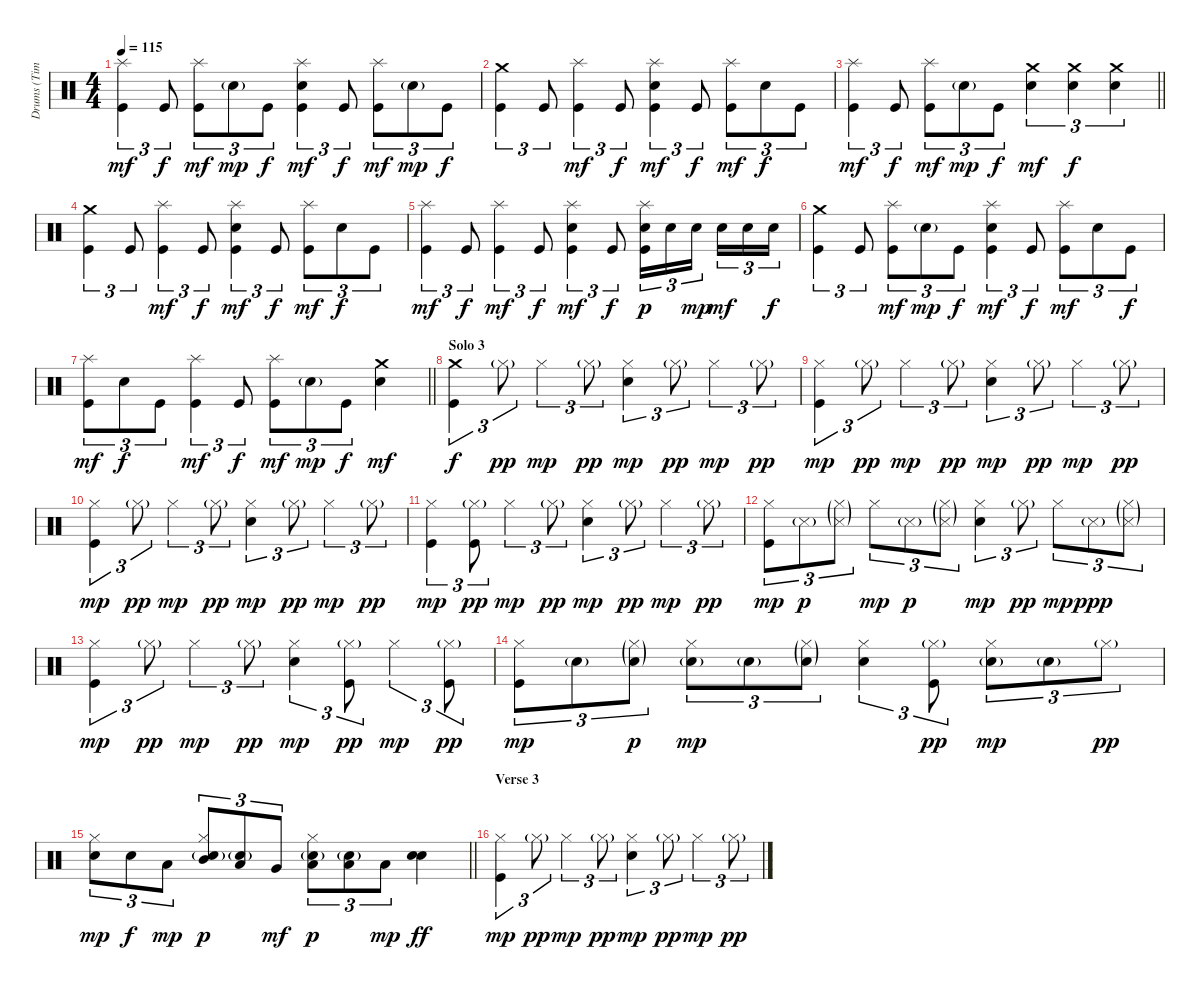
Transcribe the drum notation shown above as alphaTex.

\track ("Drums (Tim Alexander)" "Drums (Tim") {instrument percussion}
\staff {score}
\articulation defaults
\ts (4 4)
\tempo 115
\clef neutral
\ks c
("Splash (hit)" "Kick (hit)").4{tu (3 2) dy mf} "Kick (hit)".8{tu (3 2) dy f} ("Splash (hit)" "Kick (hit)").8{tu (3 2) dy mf} "Electric Snare (hit)"{g}.8{tu (3 2) dy mp} "Kick (hit)".8{tu (3 2) dy f} ("Splash (hit)" "Electric Snare (hit)" "Kick (hit)").4{tu (3 2) dy mf} "Kick (hit)".8{tu (3 2) dy f} ("Splash (hit)" "Kick (hit)").8{tu (3 2) dy mf} "Electric Snare (hit)"{g}.8{tu (3 2) dy mp} "Kick (hit)".8{tu (3 2) dy f} |
("Crash medium (hit)" "Kick (hit)").4{tu (3 2)} "Kick (hit)".8{tu (3 2)} ("Splash (hit)" "Kick (hit)").4{tu (3 2) dy mf} "Kick (hit)".8{tu (3 2) dy f} ("Splash (hit)" "Electric Snare (hit)" "Kick (hit)").4{tu (3 2) dy mf} "Kick (hit)".8{tu (3 2) dy f} ("Splash (hit)" "Kick (hit)").8{tu (3 2) dy mf} "Electric Snare (hit)".8{tu (3 2) dy f} "Kick (hit)".8{tu (3 2)} |
\barLineRight lightlight
("Splash (hit)" "Kick (hit)").4{tu (3 2) dy mf} "Kick (hit)".8{tu (3 2) dy f} ("Splash (hit)" "Kick (hit)").8{tu (3 2) dy mf} "Electric Snare (hit)"{g}.8{tu (3 2) dy mp} "Kick (hit)".8{tu (3 2) dy f} ("Crash medium (hit)" "Electric Snare (hit)").4{tu (3 2) dy mf} ("Crash medium (hit)" "Electric Snare (hit)").4{tu (3 2) dy f} ("Crash medium (hit)" "Electric Snare (hit)").4{tu (3 2)} |
("Crash medium (hit)" "Kick (hit)").4{tu (3 2) volume 13} "Kick (hit)".8{tu (3 2)} ("Splash (hit)" "Kick (hit)").4{tu (3 2) dy mf} "Kick (hit)".8{tu (3 2) dy f} ("Splash (hit)" "Electric Snare (hit)" "Kick (hit)").4{tu (3 2) dy mf} "Kick (hit)".8{tu (3 2) dy f} ("Splash (hit)" "Kick (hit)").8{tu (3 2) dy mf} "Electric Snare (hit)".8{tu (3 2) dy f} "Kick (hit)".8{tu (3 2)} |
("Splash (hit)" "Kick (hit)").4{tu (3 2) dy mf} "Kick (hit)".8{tu (3 2) dy f} ("Splash (hit)" "Kick (hit)").4{tu (3 2) dy mf} "Kick (hit)".8{tu (3 2) dy f} ("Splash (hit)" "Electric Snare (hit)" "Kick (hit)").4{tu (3 2) dy mf} "Kick (hit)".8{tu (3 2) dy f} ("Splash (hit)" "Electric Snare (hit)" "Kick (hit)").16{tu (3 2) dy p} "Electric Snare (hit)".16{tu (3 2)} "Electric Snare (hit)".16{tu (3 2) dy mp beam splitsecondary} "Electric Snare (hit)".16{tu (3 2) dy mf} "Electric Snare (hit)".16{tu (3 2)} "Electric Snare (hit)".16{tu (3 2) dy f} |
("Crash medium (hit)" "Kick (hit)").4{tu (3 2)} "Kick (hit)".8{tu (3 2)} ("Splash (hit)" "Kick (hit)").8{tu (3 2) dy mf} "Electric Snare (hit)"{g}.8{tu (3 2) dy mp} "Kick (hit)".8{tu (3 2) dy f} ("Splash (hit)" "Electric Snare (hit)" "Kick (hit)").4{tu (3 2) dy mf} "Kick (hit)".8{tu (3 2) dy f} ("Splash (hit)" "Kick (hit)").8{tu (3 2) dy mf} "Electric Snare (hit)".8{tu (3 2)} "Kick (hit)".8{tu (3 2) dy f} |
\barLineRight lightlight
("Splash (hit)" "Kick (hit)").8{tu (3 2) dy mf} "Electric Snare (hit)".8{tu (3 2) dy f} "Kick (hit)".8{tu (3 2)} ("Splash (hit)" "Kick (hit)").4{tu (3 2) dy mf} "Kick (hit)".8{tu (3 2) dy f} ("Splash (hit)" "Kick (hit)").8{tu (3 2) dy mf} "Electric Snare (hit)"{g}.8{tu (3 2) dy mp} "Kick (hit)".8{tu (3 2) dy f} ("Crash medium (hit)" "Electric Snare (hit)").4{dy mf} |
\section ("" "Solo 3")
("Crash medium (hit)" "Kick (hit)").4{tu (3 2) dy f} "Hi-Hat (closed)"{g}.8{tu (3 2) dy pp} "Hi-Hat (closed)".4{tu (3 2) dy mp} "Hi-Hat (closed)"{g}.8{tu (3 2) dy pp} ("Hi-Hat (closed)" "Electric Snare (hit)").4{tu (3 2) dy mp} "Hi-Hat (closed)"{g}.8{tu (3 2) dy pp} "Hi-Hat (closed)".4{tu (3 2) dy mp} "Hi-Hat (closed)"{g}.8{tu (3 2) dy pp} |
("Hi-Hat (closed)" "Kick (hit)").4{tu (3 2) dy mp} "Hi-Hat (closed)"{g}.8{tu (3 2) dy pp} "Hi-Hat (closed)".4{tu (3 2) dy mp} "Hi-Hat (closed)"{g}.8{tu (3 2) dy pp} ("Hi-Hat (closed)" "Electric Snare (hit)").4{tu (3 2) dy mp} "Hi-Hat (closed)"{g}.8{tu (3 2) dy pp} "Hi-Hat (closed)".4{tu (3 2) dy mp} "Hi-Hat (closed)"{g}.8{tu (3 2) dy pp} |
("Hi-Hat (closed)" "Kick (hit)").4{tu (3 2) dy mp} "Hi-Hat (closed)"{g}.8{tu (3 2) dy pp} "Hi-Hat (closed)".4{tu (3 2) dy mp} "Hi-Hat (closed)"{g}.8{tu (3 2) dy pp} ("Hi-Hat (closed)" "Electric Snare (hit)").4{tu (3 2) dy mp} "Hi-Hat (closed)"{g}.8{tu (3 2) dy pp} "Hi-Hat (closed)".4{tu (3 2) dy mp} "Hi-Hat (closed)"{g}.8{tu (3 2) dy pp} |
("Hi-Hat (closed)" "Kick (hit)").4{tu (3 2) dy mp} ("Hi-Hat (closed)"{g} "Kick (hit)").8{tu (3 2) dy pp} "Hi-Hat (closed)".4{tu (3 2) dy mp} "Hi-Hat (closed)"{g}.8{tu (3 2) dy pp} ("Hi-Hat (closed)" "Electric Snare (hit)").4{tu (3 2) dy mp} "Hi-Hat (closed)"{g}.8{tu (3 2) dy pp} "Hi-Hat (closed)".4{tu (3 2) dy mp} "Hi-Hat (closed)"{g}.8{tu (3 2) dy pp} |
("Hi-Hat (closed)" "Kick (hit)").8{tu (3 2) dy mp} "Snare (side stick) 3"{g}.8{tu (3 2) dy p} ("Hi-Hat (closed)"{g} "Snare (side stick) 3"{g}).8{tu (3 2)} "Hi-Hat (closed)".8{tu (3 2) dy mp} "Snare (side stick) 3"{g}.8{tu (3 2) dy p} ("Hi-Hat (closed)"{g} "Snare (side stick) 3"{g}).8{tu (3 2)} ("Hi-Hat (closed)" "Electric Snare (hit)").4{tu (3 2) dy mp} "Hi-Hat (closed)"{g}.8{tu (3 2) dy pp} "Hi-Hat (closed)".8{tu (3 2) dy mp} "Snare (side stick) 3"{g}.8{tu (3 2) dy ppp} ("Hi-Hat (closed)"{g} "Snare (side stick) 3"{g}).8{tu (3 2)} |
("Hi-Hat (closed)" "Kick (hit)").4{tu (3 2) dy mp} "Hi-Hat (closed)"{g}.8{tu (3 2) dy pp} "Hi-Hat (closed)".4{tu (3 2) dy mp} "Hi-Hat (closed)"{g}.8{tu (3 2) dy pp} ("Hi-Hat (closed)" "Electric Snare (hit)").4{tu (3 2) dy mp} ("Hi-Hat (closed)"{g} "Kick (hit)").8{tu (3 2) dy pp} "Hi-Hat (closed)".4{tu (3 2) dy mp} ("Hi-Hat (closed)"{g} "Kick (hit)").8{tu (3 2) dy pp} |
("Hi-Hat (closed)" "Kick (hit)").8{tu (3 2) dy mp} "Electric Snare (hit)"{g}.8{tu (3 2)} ("Hi-Hat (closed)"{g} "Electric Snare (hit)"{g}).8{tu (3 2) dy p} ("Hi-Hat (closed)" "Electric Snare (hit)"{g}).8{tu (3 2) dy mp} "Electric Snare (hit)"{g}.8{tu (3 2)} ("Hi-Hat (closed)"{g} "Electric Snare (hit)"{g}).8{tu (3 2)} ("Hi-Hat (closed)" "Electric Snare (hit)").4{tu (3 2)} ("Hi-Hat (closed)"{g} "Kick (hit)").8{tu (3 2) dy pp} ("Hi-Hat (closed)" "Electric Snare (hit)"{g}).8{tu (3 2) dy mp} "Electric Snare (hit)"{g}.8{tu (3 2)} "Hi-Hat (closed)"{g}.8{tu (3 2) dy pp} |
\barLineRight lightlight
("Hi-Hat (closed)" "Electric Snare (hit)").8{tu (3 2) dy mp} "Electric Snare (hit)".8{tu (3 2) dy f} "Low Floor Tom (hit)".8{tu (3 2) dy mp} ("Hi-Hat (closed)" "Mid Tom (hit)" "Electric Snare (hit)"{g}).8{tu (3 2) dy p} ("Low Tom (hit)" "Electric Snare (hit)"{g}).8{tu (3 2)} "Very Low Tom (hit)".8{tu (3 2) dy mf} ("Hi-Hat (closed)" "Low Tom (hit)" "Electric Snare (hit)"{g}).8{tu (3 2) dy p} ("Low Tom (hit)" "Electric Snare (hit)"{g}).8{tu (3 2)} "Low Floor Tom (hit)".8{tu (3 2) dy mp} ("Electric Snare (hit)" "Electric Snare (hit)").4{bd 60 dy ff} |
\section ("" "Verse 3")
("Hi-Hat (closed)" "Kick (hit)").4{tu (3 2) dy mp} "Hi-Hat (closed)"{g}.8{tu (3 2) dy pp} "Hi-Hat (closed)".4{tu (3 2) dy mp} "Hi-Hat (closed)"{g}.8{tu (3 2) dy pp} ("Hi-Hat (closed)" "Electric Snare (hit)").4{tu (3 2) dy mp} "Hi-Hat (closed)"{g}.8{tu (3 2) dy pp} "Hi-Hat (closed)".4{tu (3 2) dy mp} "Hi-Hat (closed)"{g}.8{tu (3 2) dy pp}
